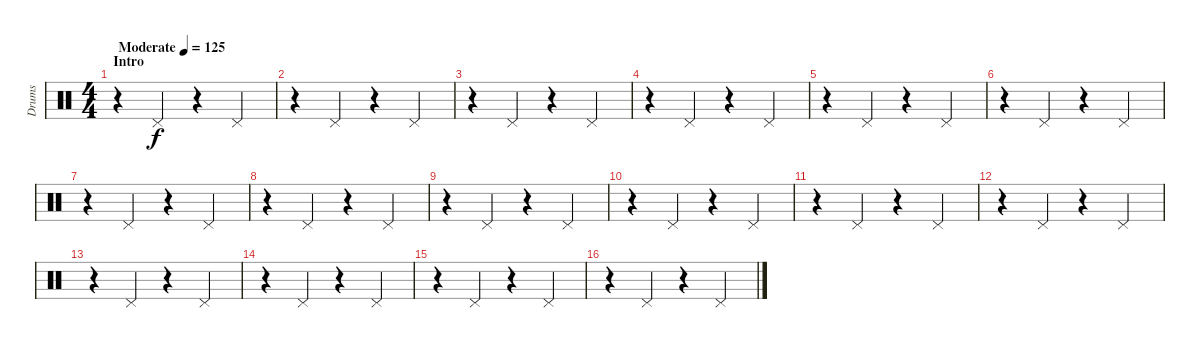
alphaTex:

\track ("Drums" "Drums") {instrument percussion}
\staff {score}
\articulation defaults
\ts (4 4)
\section ("" "Intro")
\tempo (125 "Moderate")
\clef neutral
\ks c
r.4{dy f} "Pedal Hi-Hat (hit)".4 r.4 "Pedal Hi-Hat (hit)".4 |
r.4 "Pedal Hi-Hat (hit)".4 r.4 "Pedal Hi-Hat (hit)".4 |
r.4 "Pedal Hi-Hat (hit)".4 r.4 "Pedal Hi-Hat (hit)".4 |
r.4 "Pedal Hi-Hat (hit)".4 r.4 "Pedal Hi-Hat (hit)".4 |
r.4 "Pedal Hi-Hat (hit)".4 r.4 "Pedal Hi-Hat (hit)".4 |
r.4 "Pedal Hi-Hat (hit)".4 r.4 "Pedal Hi-Hat (hit)".4 |
r.4 "Pedal Hi-Hat (hit)".4 r.4 "Pedal Hi-Hat (hit)".4 |
r.4 "Pedal Hi-Hat (hit)".4 r.4 "Pedal Hi-Hat (hit)".4 |
r.4 "Pedal Hi-Hat (hit)".4 r.4 "Pedal Hi-Hat (hit)".4 |
r.4 "Pedal Hi-Hat (hit)".4 r.4 "Pedal Hi-Hat (hit)".4 |
r.4 "Pedal Hi-Hat (hit)".4 r.4 "Pedal Hi-Hat (hit)".4 |
r.4 "Pedal Hi-Hat (hit)".4 r.4 "Pedal Hi-Hat (hit)".4 |
r.4 "Pedal Hi-Hat (hit)".4 r.4 "Pedal Hi-Hat (hit)".4 |
r.4 "Pedal Hi-Hat (hit)".4 r.4 "Pedal Hi-Hat (hit)".4 |
r.4 "Pedal Hi-Hat (hit)".4 r.4 "Pedal Hi-Hat (hit)".4 |
r.4 "Pedal Hi-Hat (hit)".4 r.4 "Pedal Hi-Hat (hit)".4
